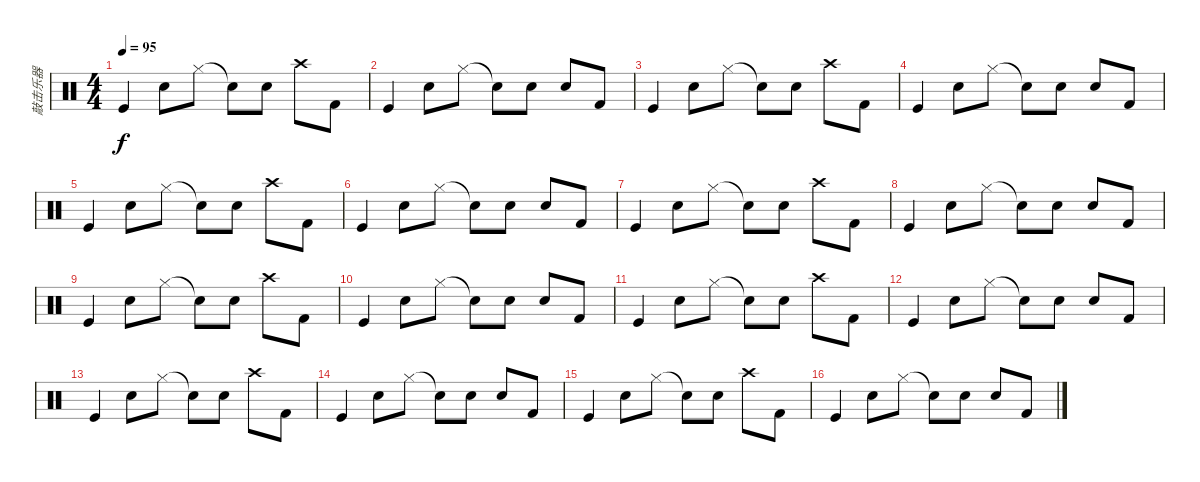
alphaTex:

\track ("敲击乐器" "敲击乐器") {instrument percussion}
\staff {score}
\articulation defaults
\ts (4 4)
\tempo 95
\clef neutral
\ks c "Kick (hit)".4{dy f} "Hand Clap (hit)".8 "Hi-Hat (closed)".8 "Snare (hit)"{t}.8 "Hand Clap (hit)".8 "Crash high (hit)".8 "Kick (hit) 2".8
|
"Kick (hit)".4 "Hand Clap (hit)".8 "Hi-Hat (closed)".8 "Snare (hit)"{t}.8 "Hand Clap (hit)".8 "Snare (hit) 2".8 "Kick (hit) 2".8 |
"Kick (hit)".4 "Hand Clap (hit)".8 "Hi-Hat (closed)".8 "Snare (hit)"{t}.8 "Hand Clap (hit)".8 "Crash high (hit)".8 "Kick (hit) 2".8 |
"Kick (hit)".4 "Hand Clap (hit)".8 "Hi-Hat (closed)".8 "Snare (hit)"{t}.8 "Hand Clap (hit)".8 "Snare (hit) 2".8 "Kick (hit) 2".8 |
"Kick (hit)".4 "Hand Clap (hit)".8 "Hi-Hat (closed)".8 "Snare (hit)"{t}.8 "Hand Clap (hit)".8 "Crash high (hit)".8 "Kick (hit) 2".8 |
"Kick (hit)".4 "Hand Clap (hit)".8 "Hi-Hat (closed)".8 "Snare (hit)"{t}.8 "Hand Clap (hit)".8 "Snare (hit) 2".8 "Kick (hit) 2".8 |
"Kick (hit)".4 "Hand Clap (hit)".8 "Hi-Hat (closed)".8 "Snare (hit)"{t}.8 "Hand Clap (hit)".8 "Crash high (hit)".8 "Kick (hit) 2".8 |
"Kick (hit)".4 "Hand Clap (hit)".8 "Hi-Hat (closed)".8 "Snare (hit)"{t}.8 "Hand Clap (hit)".8 "Snare (hit) 2".8 "Kick (hit) 2".8 |
"Kick (hit)".4 "Hand Clap (hit)".8 "Hi-Hat (closed)".8 "Snare (hit)"{t}.8 "Hand Clap (hit)".8 "Crash high (hit)".8 "Kick (hit) 2".8 |
"Kick (hit)".4 "Hand Clap (hit)".8 "Hi-Hat (closed)".8 "Snare (hit)"{t}.8 "Hand Clap (hit)".8 "Snare (hit) 2".8 "Kick (hit) 2".8 |
"Kick (hit)".4 "Hand Clap (hit)".8 "Hi-Hat (closed)".8 "Snare (hit)"{t}.8 "Hand Clap (hit)".8 "Crash high (hit)".8 "Kick (hit) 2".8 |
"Kick (hit)".4 "Hand Clap (hit)".8 "Hi-Hat (closed)".8 "Snare (hit)"{t}.8 "Hand Clap (hit)".8 "Snare (hit) 2".8 "Kick (hit) 2".8 |
"Kick (hit)".4 "Hand Clap (hit)".8 "Hi-Hat (closed)".8 "Snare (hit)"{t}.8 "Hand Clap (hit)".8 "Crash high (hit)".8 "Kick (hit) 2".8 |
"Kick (hit)".4 "Hand Clap (hit)".8 "Hi-Hat (closed)".8 "Snare (hit)"{t}.8 "Hand Clap (hit)".8 "Snare (hit) 2".8 "Kick (hit) 2".8 |
"Kick (hit)".4 "Hand Clap (hit)".8 "Hi-Hat (closed)".8 "Snare (hit)"{t}.8 "Hand Clap (hit)".8 "Crash high (hit)".8 "Kick (hit) 2".8 |
"Kick (hit)".4 "Hand Clap (hit)".8 "Hi-Hat (closed)".8 "Snare (hit)"{t}.8 "Hand Clap (hit)".8 "Snare (hit) 2".8 "Kick (hit) 2".8
